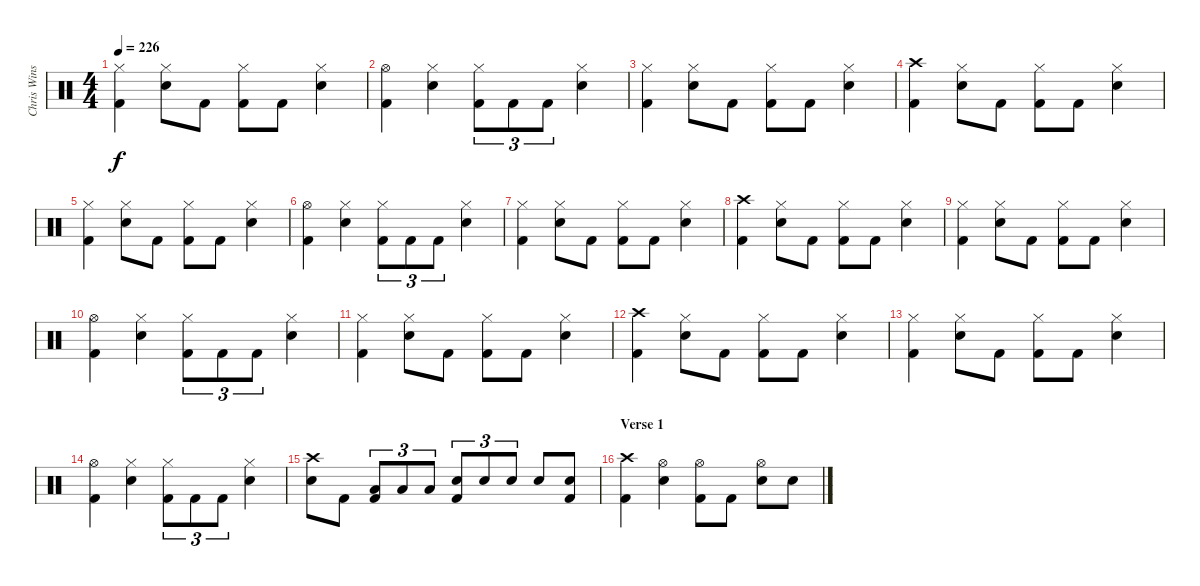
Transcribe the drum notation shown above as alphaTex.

\track ("Chris Winship (Drums)" "Chris Wins") {instrument percussion}
\staff {score}
\articulation defaults
\ts (4 4)
\tempo 226
\clef neutral
\ks c
("Hi-Hat (closed)" "Kick (hit) 2").4{dy f} ("Hi-Hat (closed)" "Electric Snare (hit)").8 "Kick (hit) 2".8 ("Hi-Hat (closed)" "Kick (hit) 2").8 "Kick (hit) 2".8 ("Hi-Hat (closed)" "Electric Snare (hit)").4 |
("Hi-Hat (open)" "Kick (hit) 2").4 ("Hi-Hat (closed)" "Electric Snare (hit)").4 ("Hi-Hat (closed)" "Kick (hit) 2").8{tu (3 2)} "Kick (hit) 2".8{tu (3 2)} "Kick (hit) 2".8{tu (3 2)} ("Hi-Hat (closed)" "Electric Snare (hit)").4 |
("Hi-Hat (closed)" "Kick (hit) 2").4 ("Hi-Hat (closed)" "Electric Snare (hit)").8 "Kick (hit) 2".8 ("Hi-Hat (closed)" "Kick (hit) 2").8 "Kick (hit) 2".8 ("Hi-Hat (closed)" "Electric Snare (hit)").4 |
("Crash high (hit)" "Kick (hit) 2").4 ("Hi-Hat (closed)" "Electric Snare (hit)").8 "Kick (hit) 2".8 ("Hi-Hat (closed)" "Kick (hit) 2").8 "Kick (hit) 2".8 ("Hi-Hat (closed)" "Electric Snare (hit)").4 |
("Hi-Hat (closed)" "Kick (hit) 2").4 ("Hi-Hat (closed)" "Electric Snare (hit)").8 "Kick (hit) 2".8 ("Hi-Hat (closed)" "Kick (hit) 2").8 "Kick (hit) 2".8 ("Hi-Hat (closed)" "Electric Snare (hit)").4 |
("Hi-Hat (open)" "Kick (hit) 2").4 ("Hi-Hat (closed)" "Electric Snare (hit)").4 ("Hi-Hat (closed)" "Kick (hit) 2").8{tu (3 2)} "Kick (hit) 2".8{tu (3 2)} "Kick (hit) 2".8{tu (3 2)} ("Hi-Hat (closed)" "Electric Snare (hit)").4 |
("Hi-Hat (closed)" "Kick (hit) 2").4 ("Hi-Hat (closed)" "Electric Snare (hit)").8 "Kick (hit) 2".8 ("Hi-Hat (closed)" "Kick (hit) 2").8 "Kick (hit) 2".8 ("Hi-Hat (closed)" "Electric Snare (hit)").4 |
("Crash high (hit)" "Kick (hit) 2").4 ("Hi-Hat (closed)" "Electric Snare (hit)").8 "Kick (hit) 2".8 ("Hi-Hat (closed)" "Kick (hit) 2").8 "Kick (hit) 2".8 ("Hi-Hat (closed)" "Electric Snare (hit)").4 |
("Hi-Hat (closed)" "Kick (hit) 2").4 ("Hi-Hat (closed)" "Electric Snare (hit)").8 "Kick (hit) 2".8 ("Hi-Hat (closed)" "Kick (hit) 2").8 "Kick (hit) 2".8 ("Hi-Hat (closed)" "Electric Snare (hit)").4 |
("Hi-Hat (open)" "Kick (hit) 2").4 ("Hi-Hat (closed)" "Electric Snare (hit)").4 ("Hi-Hat (closed)" "Kick (hit) 2").8{tu (3 2)} "Kick (hit) 2".8{tu (3 2)} "Kick (hit) 2".8{tu (3 2)} ("Hi-Hat (closed)" "Electric Snare (hit)").4 |
("Hi-Hat (closed)" "Kick (hit) 2").4 ("Hi-Hat (closed)" "Electric Snare (hit)").8 "Kick (hit) 2".8 ("Hi-Hat (closed)" "Kick (hit) 2").8 "Kick (hit) 2".8 ("Hi-Hat (closed)" "Electric Snare (hit)").4 |
("Crash high (hit)" "Kick (hit) 2").4 ("Hi-Hat (closed)" "Electric Snare (hit)").8 "Kick (hit) 2".8 ("Hi-Hat (closed)" "Kick (hit) 2").8 "Kick (hit) 2".8 ("Hi-Hat (closed)" "Electric Snare (hit)").4 |
("Hi-Hat (closed)" "Kick (hit) 2").4 ("Hi-Hat (closed)" "Electric Snare (hit)").8 "Kick (hit) 2".8 ("Hi-Hat (closed)" "Kick (hit) 2").8 "Kick (hit) 2".8 ("Hi-Hat (closed)" "Electric Snare (hit)").4 |
("Hi-Hat (open)" "Kick (hit) 2").4 ("Hi-Hat (closed)" "Electric Snare (hit)").4 ("Hi-Hat (closed)" "Kick (hit) 2").8{tu (3 2)} "Kick (hit) 2".8{tu (3 2)} "Kick (hit) 2".8{tu (3 2)} ("Hi-Hat (closed)" "Electric Snare (hit)").4 |
("Crash high (hit)" "Electric Snare (hit)").8 "Kick (hit) 2".8 ("Low Floor Tom (hit)" "Kick (hit) 2").8{tu (3 2)} "Low Floor Tom (hit)".8{tu (3 2)} "Low Floor Tom (hit)".8{tu (3 2)} ("Electric Snare (hit)" "Kick (hit) 2").8{tu (3 2)} "Electric Snare (hit)".8{tu (3 2)} "Electric Snare (hit)".8{tu (3 2)} "Electric Snare (hit)".8 ("Kick (hit) 2" "Electric Snare (hit)").8 |
\section ("" "Verse 1")
("Crash high (hit)" "Kick (hit) 2").4 ("Hi-Hat (open)" "Electric Snare (hit)").4 ("Hi-Hat (open)" "Kick (hit) 2").8 "Kick (hit) 2".8 ("Hi-Hat (open)" "Electric Snare (hit)").8 "Electric Snare (hit)".8
